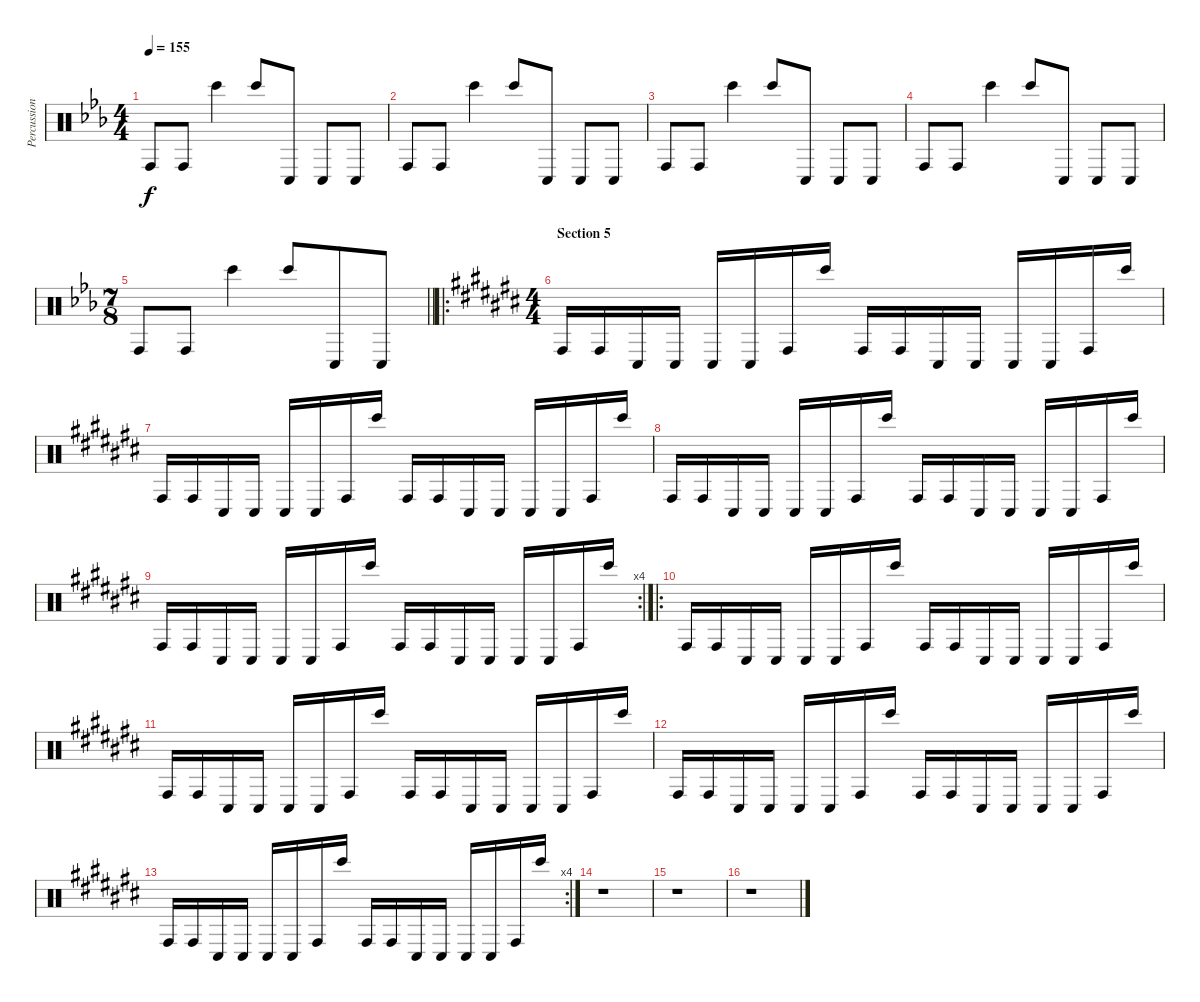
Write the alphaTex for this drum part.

\track ("Percussion" "Percussion") {instrument percussion}
\staff {score}
\articulation defaults
\ts (4 4)
\tempo 155
\clef neutral
\ks eb "Conga high (hit)".8{dy f} "Conga high (hit)".8 "Bongo High (hit)".4 "Bongo High (hit)".8 "Conga low (hit)".8 "Conga low (hit)".8 "Conga low (hit)".8
|
"Conga high (hit)".8 "Conga high (hit)".8 "Bongo High (hit)".4 "Bongo High (hit)".8 "Conga low (hit)".8 "Conga low (hit)".8 "Conga low (hit)".8 |
"Conga high (hit)".8 "Conga high (hit)".8 "Bongo High (hit)".4 "Bongo High (hit)".8 "Conga low (hit)".8 "Conga low (hit)".8 "Conga low (hit)".8 |
"Conga high (hit)".8 "Conga high (hit)".8 "Bongo High (hit)".4 "Bongo High (hit)".8 "Conga low (hit)".8 "Conga low (hit)".8 "Conga low (hit)".8 |
\ts (7 8)
\barLineRight lightlight "Conga high (hit)".8 "Conga high (hit)".8 "Bongo High (hit)".4 "Bongo High (hit)".8 "Conga low (hit)".8 "Conga low (hit)".8
|
\ro
\ts (4 4)
\section ("" "Section 5")
\ks c# "Conga high (hit)".16 "Conga high (hit)".16 "Conga low (hit)".16 "Conga low (hit)".16 "Conga low (hit)".16 "Conga low (hit)".16 "Conga high (hit)".16 "Bongo High (hit)".16 "Conga high (hit)".16 "Conga high (hit)".16 "Conga low (hit)".16 "Conga low (hit)".16 "Conga low (hit)".16 "Conga low (hit)".16 "Conga high (hit)".16 "Bongo High (hit)".16
|
"Conga high (hit)".16 "Conga high (hit)".16 "Conga low (hit)".16 "Conga low (hit)".16 "Conga low (hit)".16 "Conga low (hit)".16 "Conga high (hit)".16 "Bongo High (hit)".16 "Conga high (hit)".16 "Conga high (hit)".16 "Conga low (hit)".16 "Conga low (hit)".16 "Conga low (hit)".16 "Conga low (hit)".16 "Conga high (hit)".16 "Bongo High (hit)".16 |
"Conga high (hit)".16 "Conga high (hit)".16 "Conga low (hit)".16 "Conga low (hit)".16 "Conga low (hit)".16 "Conga low (hit)".16 "Conga high (hit)".16 "Bongo High (hit)".16 "Conga high (hit)".16 "Conga high (hit)".16 "Conga low (hit)".16 "Conga low (hit)".16 "Conga low (hit)".16 "Conga low (hit)".16 "Conga high (hit)".16 "Bongo High (hit)".16 |
\rc 4 "Conga high (hit)".16 "Conga high (hit)".16 "Conga low (hit)".16 "Conga low (hit)".16 "Conga low (hit)".16 "Conga low (hit)".16 "Conga high (hit)".16 "Bongo High (hit)".16 "Conga high (hit)".16 "Conga high (hit)".16 "Conga low (hit)".16 "Conga low (hit)".16 "Conga low (hit)".16 "Conga low (hit)".16 "Conga high (hit)".16 "Bongo High (hit)".16
|
\ro "Conga high (hit)".16 "Conga high (hit)".16 "Conga low (hit)".16 "Conga low (hit)".16 "Conga low (hit)".16 "Conga low (hit)".16 "Conga high (hit)".16 "Bongo High (hit)".16 "Conga high (hit)".16 "Conga high (hit)".16 "Conga low (hit)".16 "Conga low (hit)".16 "Conga low (hit)".16 "Conga low (hit)".16 "Conga high (hit)".16 "Bongo High (hit)".16
|
"Conga high (hit)".16 "Conga high (hit)".16 "Conga low (hit)".16 "Conga low (hit)".16 "Conga low (hit)".16 "Conga low (hit)".16 "Conga high (hit)".16 "Bongo High (hit)".16 "Conga high (hit)".16 "Conga high (hit)".16 "Conga low (hit)".16 "Conga low (hit)".16 "Conga low (hit)".16 "Conga low (hit)".16 "Conga high (hit)".16 "Bongo High (hit)".16 |
"Conga high (hit)".16 "Conga high (hit)".16 "Conga low (hit)".16 "Conga low (hit)".16 "Conga low (hit)".16 "Conga low (hit)".16 "Conga high (hit)".16 "Bongo High (hit)".16 "Conga high (hit)".16 "Conga high (hit)".16 "Conga low (hit)".16 "Conga low (hit)".16 "Conga low (hit)".16 "Conga low (hit)".16 "Conga high (hit)".16 "Bongo High (hit)".16 |
\rc 4 "Conga high (hit)".16 "Conga high (hit)".16 "Conga low (hit)".16 "Conga low (hit)".16 "Conga low (hit)".16 "Conga low (hit)".16 "Conga high (hit)".16 "Bongo High (hit)".16 "Conga high (hit)".16 "Conga high (hit)".16 "Conga low (hit)".16 "Conga low (hit)".16 "Conga low (hit)".16 "Conga low (hit)".16 "Conga high (hit)".16 "Bongo High (hit)".16
|
r.1 |
r.1 |
r.1
